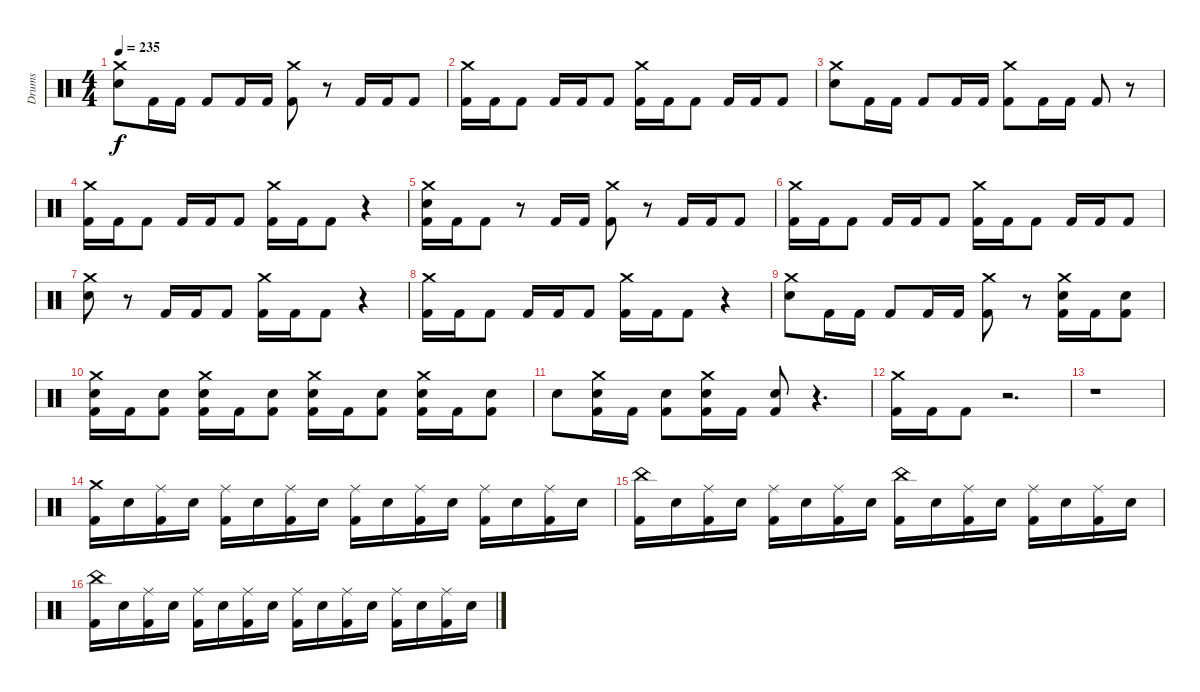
\track ("Drums" "Drums") {instrument percussion}
\staff {score}
\articulation defaults
\ts (4 4)
\tempo 235
\clef neutral
\ks c
("Crash medium (hit)" "Electric Snare (hit)").8{dy f} "Kick (hit) 2".16 "Kick (hit) 2".16 "Kick (hit) 2".8 "Kick (hit) 2".16 "Kick (hit) 2".16 ("Crash medium (hit)" "Kick (hit) 2").8 r.8 "Kick (hit) 2".16 "Kick (hit) 2".16 "Kick (hit) 2".8 |
("Crash medium (hit)" "Kick (hit) 2").16 "Kick (hit) 2".16 "Kick (hit) 2".8 "Kick (hit) 2".16 "Kick (hit) 2".16 "Kick (hit) 2".8 ("Crash medium (hit)" "Kick (hit) 2").16 "Kick (hit) 2".16 "Kick (hit) 2".8 "Kick (hit) 2".16 "Kick (hit) 2".16 "Kick (hit) 2".8 |
("Crash medium (hit)" "Electric Snare (hit)").8 "Kick (hit) 2".16 "Kick (hit) 2".16 "Kick (hit) 2".8 "Kick (hit) 2".16 "Kick (hit) 2".16 ("Crash medium (hit)" "Kick (hit) 2").8 "Kick (hit) 2".16 "Kick (hit) 2".16 "Kick (hit) 2".8 r.8 |
("Crash medium (hit)" "Kick (hit) 2").16 "Kick (hit) 2".16 "Kick (hit) 2".8 "Kick (hit) 2".16 "Kick (hit) 2".16 "Kick (hit) 2".8 ("Crash medium (hit)" "Kick (hit) 2").16 "Kick (hit) 2".16 "Kick (hit) 2".8 r.4 |
("Crash medium (hit)" "Electric Snare (hit)" "Kick (hit) 2").16 "Kick (hit) 2".16 "Kick (hit) 2".8 r.8 "Kick (hit) 2".16 "Kick (hit) 2".16 ("Crash medium (hit)" "Kick (hit) 2").8 r.8 "Kick (hit) 2".16 "Kick (hit) 2".16 "Kick (hit) 2".8 |
("Crash medium (hit)" "Kick (hit) 2").16 "Kick (hit) 2".16 "Kick (hit) 2".8 "Kick (hit) 2".16 "Kick (hit) 2".16 "Kick (hit) 2".8 ("Crash medium (hit)" "Kick (hit) 2").16 "Kick (hit) 2".16 "Kick (hit) 2".8 "Kick (hit) 2".16 "Kick (hit) 2".16 "Kick (hit) 2".8 |
("Crash medium (hit)" "Electric Snare (hit)").8 r.8 "Kick (hit) 2".16 "Kick (hit) 2".16 "Kick (hit) 2".8 ("Crash medium (hit)" "Kick (hit) 2").16 "Kick (hit) 2".16 "Kick (hit) 2".8 r.4 |
("Crash medium (hit)" "Kick (hit) 2").16 "Kick (hit) 2".16 "Kick (hit) 2".8 "Kick (hit) 2".16 "Kick (hit) 2".16 "Kick (hit) 2".8 ("Crash medium (hit)" "Kick (hit) 2").16 "Kick (hit) 2".16 "Kick (hit) 2".8 r.4 |
("Crash medium (hit)" "Electric Snare (hit)").8 "Kick (hit) 2".16 "Kick (hit) 2".16 "Kick (hit) 2".8 "Kick (hit) 2".16 "Kick (hit) 2".16 ("Crash medium (hit)" "Kick (hit) 2").8 r.8 ("Crash medium (hit)" "Electric Snare (hit)" "Kick (hit) 2").16 "Kick (hit) 2".16 ("Electric Snare (hit)" "Kick (hit) 2").8 |
("Crash medium (hit)" "Electric Snare (hit)" "Kick (hit) 2").16 "Kick (hit) 2".16 ("Electric Snare (hit)" "Kick (hit) 2").8 ("Crash medium (hit)" "Electric Snare (hit)" "Kick (hit) 2").16 "Kick (hit) 2".16 ("Electric Snare (hit)" "Kick (hit) 2").8 ("Crash medium (hit)" "Electric Snare (hit)" "Kick (hit) 2").16 "Kick (hit) 2".16 ("Electric Snare (hit)" "Kick (hit) 2").8 ("Crash medium (hit)" "Electric Snare (hit)" "Kick (hit) 2").16 "Kick (hit) 2".16 ("Electric Snare (hit)" "Kick (hit) 2").8 |
"Electric Snare (hit)".8 ("Crash medium (hit)" "Electric Snare (hit)" "Kick (hit) 2").16 "Kick (hit) 2".16 ("Electric Snare (hit)" "Kick (hit) 2").8 ("Crash medium (hit)" "Electric Snare (hit)" "Kick (hit) 2").16 "Kick (hit) 2".16 ("Electric Snare (hit)" "Kick (hit) 2").8 r.4{d} |
("Crash medium (hit)" "Kick (hit) 2").16 "Kick (hit) 2".16 "Kick (hit) 2".8 r.2{d} |
r.1 |
("Crash medium (hit)" "Kick (hit) 2").16 "Electric Snare (hit)".16 ("Ride (middle)" "Kick (hit) 2").16 "Electric Snare (hit)".16 ("Ride (middle)" "Kick (hit) 2").16 "Electric Snare (hit)".16 ("Ride (middle)" "Kick (hit) 2").16 "Electric Snare (hit)".16 ("Ride (middle)" "Kick (hit) 2").16 "Electric Snare (hit)".16 ("Ride (middle)" "Kick (hit) 2").16 "Electric Snare (hit)".16 ("Ride (middle)" "Kick (hit) 2").16 "Electric Snare (hit)".16 ("Ride (middle)" "Kick (hit) 2").16 "Electric Snare (hit)".16 |
("China (hit)" "Kick (hit) 2").16 "Electric Snare (hit)".16 ("Ride (middle)" "Kick (hit) 2").16 "Electric Snare (hit)".16 ("Ride (middle)" "Kick (hit) 2").16 "Electric Snare (hit)".16 ("Ride (middle)" "Kick (hit) 2").16 "Electric Snare (hit)".16 ("China (hit)" "Kick (hit) 2").16 "Electric Snare (hit)".16 ("Ride (middle)" "Kick (hit) 2").16 "Electric Snare (hit)".16 ("Ride (middle)" "Kick (hit) 2").16 "Electric Snare (hit)".16 ("Ride (middle)" "Kick (hit) 2").16 "Electric Snare (hit)".16 |
("China (hit)" "Kick (hit) 2").16 "Electric Snare (hit)".16 ("Ride (middle)" "Kick (hit) 2").16 "Electric Snare (hit)".16 ("Ride (middle)" "Kick (hit) 2").16 "Electric Snare (hit)".16 ("Ride (middle)" "Kick (hit) 2").16 "Electric Snare (hit)".16 ("Ride (middle)" "Kick (hit) 2").16 "Electric Snare (hit)".16 ("Ride (middle)" "Kick (hit) 2").16 "Electric Snare (hit)".16 ("Ride (middle)" "Kick (hit) 2").16 "Electric Snare (hit)".16 ("Ride (middle)" "Kick (hit) 2").16 "Electric Snare (hit)".16
